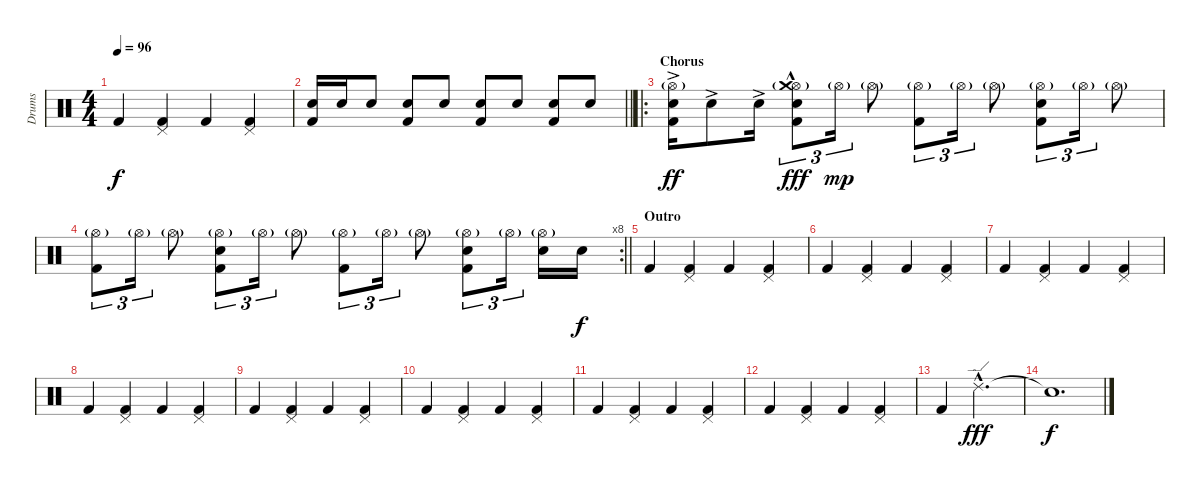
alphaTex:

\track ("Drums" "Drums") {instrument percussion}
\staff {score}
\articulation defaults
\ts (4 4)
\tempo 96
\clef neutral
\ks c "Kick (hit) 2".4{dy f}
("Pedal Hi-Hat (hit)" "Kick (hit) 2").4 "Kick (hit) 2".4 ("Pedal Hi-Hat (hit)" "Kick (hit) 2").4 |
\barLineRight lightlight
("Electric Snare (hit)" "Kick (hit) 2").16 "Electric Snare (hit)".16 "Electric Snare (hit)".8 ("Electric Snare (hit)" "Kick (hit) 2").8 "Electric Snare (hit)".8 ("Electric Snare (hit)" "Kick (hit) 2").8 "Electric Snare (hit)".8 ("Electric Snare (hit)" "Kick (hit) 2").8 "Electric Snare (hit)".8 |
\ro
\section ("" "Chorus")
("Hi-Hat (open)"{g} "Electric Snare (hit)"{ac} "Kick (hit) 2").16{dy ff} "Electric Snare (hit)"{ac}.8 "Electric Snare (hit)"{ac}.16 ("Hi-Hat (open)"{g} "Crash medium (hit)"{hac} "Electric Snare (hit)"{hac} "Kick (hit) 2").8{tu (3 2) dy fff} "Hi-Hat (open)"{g}.16{tu (3 2) dy mp} "Hi-Hat (open)"{g}.8 ("Hi-Hat (open)"{g} "Kick (hit) 2").8{tu (3 2)} "Hi-Hat (open)"{g}.16{tu (3 2)} "Hi-Hat (open)"{g}.8 ("Hi-Hat (open)"{g} "Electric Snare (hit)" "Kick (hit) 2").8{tu (3 2)} "Hi-Hat (open)"{g}.16{tu (3 2)} "Hi-Hat (open)"{g}.8 |
\rc 8
\barLineRight lightlight
("Hi-Hat (open)"{g} "Kick (hit) 2").8{tu (3 2)} "Hi-Hat (open)"{g}.16{tu (3 2)} "Hi-Hat (open)"{g}.8 ("Hi-Hat (open)"{g} "Electric Snare (hit)" "Kick (hit) 2").8{tu (3 2)} "Hi-Hat (open)"{g}.16{tu (3 2)} "Hi-Hat (open)"{g}.8 ("Hi-Hat (open)"{g} "Kick (hit) 2").8{tu (3 2)} "Hi-Hat (open)"{g}.16{tu (3 2)} "Hi-Hat (open)"{g}.8 ("Hi-Hat (open)"{g} "Electric Snare (hit)" "Kick (hit) 2").8{tu (3 2)} "Hi-Hat (open)"{g}.16{tu (3 2) beam splitsecondary} ("Hi-Hat (open)"{g} "Electric Snare (hit)").16 "Electric Snare (hit)".16{dy f} |
\section ("" "Outro")
"Kick (hit) 2".4 ("Pedal Hi-Hat (hit)" "Kick (hit) 2").4 "Kick (hit) 2".4 ("Pedal Hi-Hat (hit)" "Kick (hit) 2").4 |
"Kick (hit) 2".4 ("Pedal Hi-Hat (hit)" "Kick (hit) 2").4 "Kick (hit) 2".4 ("Pedal Hi-Hat (hit)" "Kick (hit) 2").4 |
"Kick (hit) 2".4 ("Pedal Hi-Hat (hit)" "Kick (hit) 2").4 "Kick (hit) 2".4 ("Pedal Hi-Hat (hit)" "Kick (hit) 2").4 |
"Kick (hit) 2".4 ("Pedal Hi-Hat (hit)" "Kick (hit) 2").4 "Kick (hit) 2".4 ("Pedal Hi-Hat (hit)" "Kick (hit) 2").4 |
"Kick (hit) 2".4 ("Pedal Hi-Hat (hit)" "Kick (hit) 2").4 "Kick (hit) 2".4 ("Pedal Hi-Hat (hit)" "Kick (hit) 2").4 |
"Kick (hit) 2".4 ("Pedal Hi-Hat (hit)" "Kick (hit) 2").4 "Kick (hit) 2".4 ("Pedal Hi-Hat (hit)" "Kick (hit) 2").4 |
"Kick (hit) 2".4 ("Pedal Hi-Hat (hit)" "Kick (hit) 2").4 "Kick (hit) 2".4 ("Pedal Hi-Hat (hit)" "Kick (hit) 2").4 |
"Kick (hit) 2".4 ("Pedal Hi-Hat (hit)" "Kick (hit) 2").4 "Kick (hit) 2".4 ("Pedal Hi-Hat (hit)" "Kick (hit) 2").4 |
"Kick (hit) 2".4 "Ride (edge) 2"{hac}.2{d dy fff} |
"Snare (hit)"{t}.1{d dy f}
